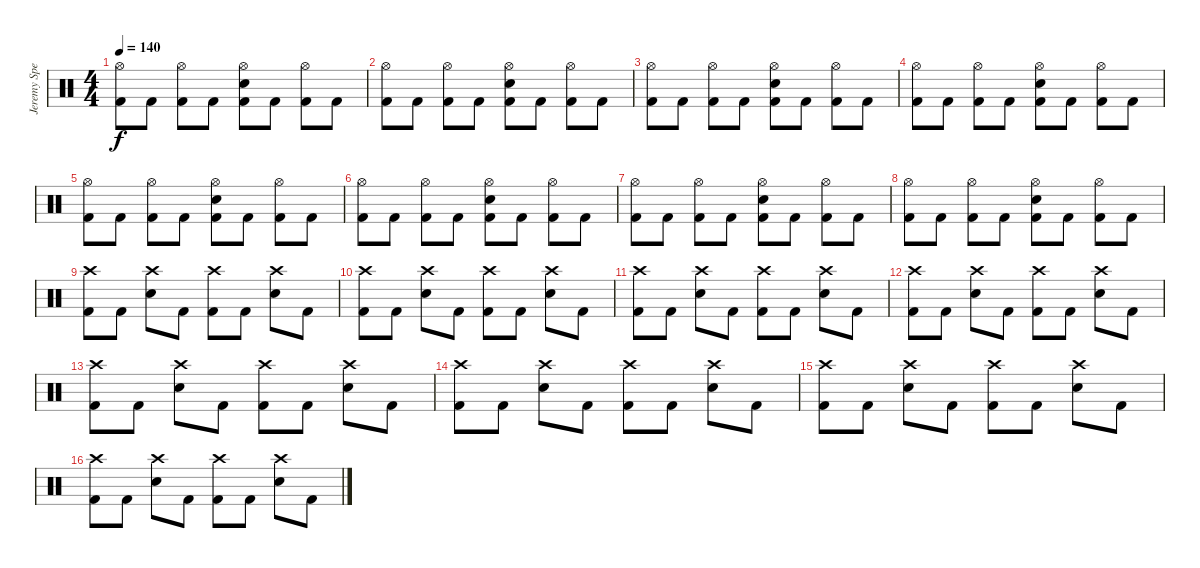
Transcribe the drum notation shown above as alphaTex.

\track ("Jeremy Spencer" "Jeremy Spe") {instrument percussion}
\staff {score}
\articulation defaults
\ts (4 4)
\tempo 140
\clef neutral
\ks c
("Hi-Hat (open)" "Kick (hit) 2").8{dy f} "Kick (hit) 2".8 ("Hi-Hat (open)" "Kick (hit) 2").8 "Kick (hit) 2".8 ("Hi-Hat (open)" "Snare (hit) 2" "Kick (hit) 2").8 "Kick (hit) 2".8 ("Hi-Hat (open)" "Kick (hit) 2").8 "Kick (hit) 2".8 |
("Hi-Hat (open)" "Kick (hit) 2").8 "Kick (hit) 2".8 ("Hi-Hat (open)" "Kick (hit) 2").8 "Kick (hit) 2".8 ("Hi-Hat (open)" "Snare (hit) 2" "Kick (hit) 2").8 "Kick (hit) 2".8 ("Hi-Hat (open)" "Kick (hit) 2").8 "Kick (hit) 2".8 |
("Hi-Hat (open)" "Kick (hit) 2").8 "Kick (hit) 2".8 ("Hi-Hat (open)" "Kick (hit) 2").8 "Kick (hit) 2".8 ("Hi-Hat (open)" "Snare (hit) 2" "Kick (hit) 2").8 "Kick (hit) 2".8 ("Hi-Hat (open)" "Kick (hit) 2").8 "Kick (hit) 2".8 |
("Hi-Hat (open)" "Kick (hit) 2").8 "Kick (hit) 2".8 ("Hi-Hat (open)" "Kick (hit) 2").8 "Kick (hit) 2".8 ("Hi-Hat (open)" "Snare (hit) 2" "Kick (hit) 2").8 "Kick (hit) 2".8 ("Hi-Hat (open)" "Kick (hit) 2").8 "Kick (hit) 2".8 |
("Hi-Hat (open)" "Kick (hit) 2").8 "Kick (hit) 2".8 ("Hi-Hat (open)" "Kick (hit) 2").8 "Kick (hit) 2".8 ("Hi-Hat (open)" "Snare (hit) 2" "Kick (hit) 2").8 "Kick (hit) 2".8 ("Hi-Hat (open)" "Kick (hit) 2").8 "Kick (hit) 2".8 |
("Hi-Hat (open)" "Kick (hit) 2").8 "Kick (hit) 2".8 ("Hi-Hat (open)" "Kick (hit) 2").8 "Kick (hit) 2".8 ("Hi-Hat (open)" "Snare (hit) 2" "Kick (hit) 2").8 "Kick (hit) 2".8 ("Hi-Hat (open)" "Kick (hit) 2").8 "Kick (hit) 2".8 |
("Hi-Hat (open)" "Kick (hit) 2").8 "Kick (hit) 2".8 ("Hi-Hat (open)" "Kick (hit) 2").8 "Kick (hit) 2".8 ("Hi-Hat (open)" "Snare (hit) 2" "Kick (hit) 2").8 "Kick (hit) 2".8 ("Hi-Hat (open)" "Kick (hit) 2").8 "Kick (hit) 2".8 |
("Hi-Hat (open)" "Kick (hit) 2").8 "Kick (hit) 2".8 ("Hi-Hat (open)" "Kick (hit) 2").8 "Kick (hit) 2".8 ("Hi-Hat (open)" "Snare (hit) 2" "Kick (hit) 2").8 "Kick (hit) 2".8 ("Hi-Hat (open)" "Kick (hit) 2").8 "Kick (hit) 2".8 |
("Crash high (hit)" "Kick (hit) 2").8 "Kick (hit) 2".8 ("Crash high (hit)" "Snare (hit) 2").8 "Kick (hit) 2".8 ("Crash high (hit)" "Kick (hit) 2").8 "Kick (hit) 2".8 ("Crash high (hit)" "Snare (hit) 2").8 "Kick (hit) 2".8 |
("Crash high (hit)" "Kick (hit) 2").8 "Kick (hit) 2".8 ("Crash high (hit)" "Snare (hit) 2").8 "Kick (hit) 2".8 ("Crash high (hit)" "Kick (hit) 2").8 "Kick (hit) 2".8 ("Crash high (hit)" "Snare (hit) 2").8 "Kick (hit) 2".8 |
("Crash high (hit)" "Kick (hit) 2").8 "Kick (hit) 2".8 ("Crash high (hit)" "Snare (hit) 2").8 "Kick (hit) 2".8 ("Crash high (hit)" "Kick (hit) 2").8 "Kick (hit) 2".8 ("Crash high (hit)" "Snare (hit) 2").8 "Kick (hit) 2".8 |
("Crash high (hit)" "Kick (hit) 2").8 "Kick (hit) 2".8 ("Crash high (hit)" "Snare (hit) 2").8 "Kick (hit) 2".8 ("Crash high (hit)" "Kick (hit) 2").8 "Kick (hit) 2".8 ("Crash high (hit)" "Snare (hit) 2").8 "Kick (hit) 2".8 |
("Crash high (hit)" "Kick (hit) 2").8 "Kick (hit) 2".8 ("Crash high (hit)" "Snare (hit) 2").8 "Kick (hit) 2".8 ("Crash high (hit)" "Kick (hit) 2").8 "Kick (hit) 2".8 ("Crash high (hit)" "Snare (hit) 2").8 "Kick (hit) 2".8 |
("Crash high (hit)" "Kick (hit) 2").8 "Kick (hit) 2".8 ("Crash high (hit)" "Snare (hit) 2").8 "Kick (hit) 2".8 ("Crash high (hit)" "Kick (hit) 2").8 "Kick (hit) 2".8 ("Crash high (hit)" "Snare (hit) 2").8 "Kick (hit) 2".8 |
("Crash high (hit)" "Kick (hit) 2").8 "Kick (hit) 2".8 ("Crash high (hit)" "Snare (hit) 2").8 "Kick (hit) 2".8 ("Crash high (hit)" "Kick (hit) 2").8 "Kick (hit) 2".8 ("Crash high (hit)" "Snare (hit) 2").8 "Kick (hit) 2".8 |
("Crash high (hit)" "Kick (hit) 2").8 "Kick (hit) 2".8 ("Crash high (hit)" "Snare (hit) 2").8 "Kick (hit) 2".8 ("Crash high (hit)" "Kick (hit) 2").8 "Kick (hit) 2".8 ("Crash high (hit)" "Snare (hit) 2").8 "Kick (hit) 2".8
